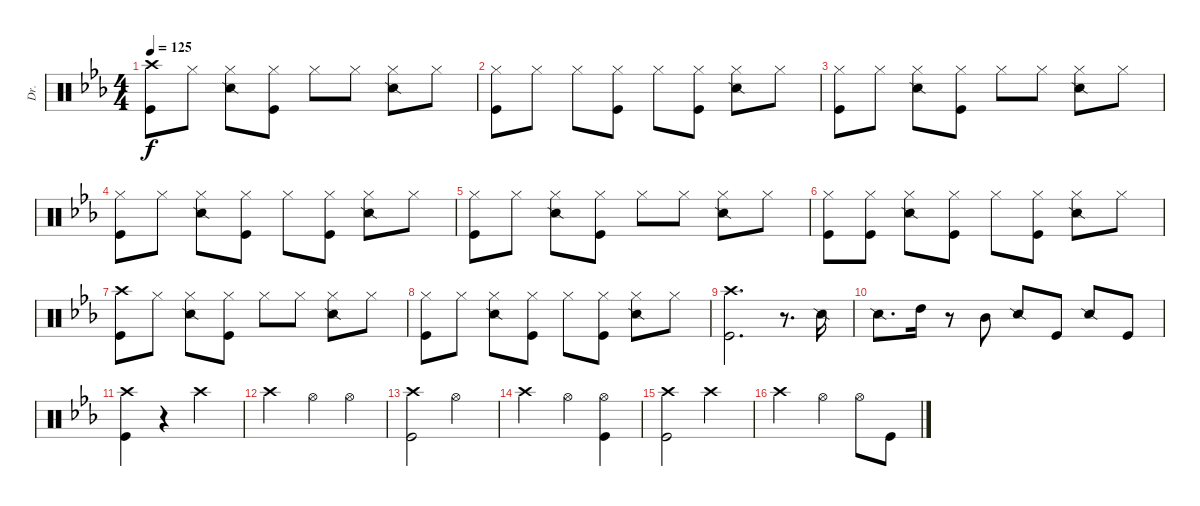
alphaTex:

\track ("Dr." "Dr.") {instrument percussion}
\staff {score}
\articulation defaults
\ts (4 4)
\tempo 125
\clef neutral
\ks eb
("Crash high (hit)" "Kick (hit)").8{dy f} "Hi-Hat (closed)".8 ("Hi-Hat (closed)" "Snare (side stick) 2").8 ("Hi-Hat (closed)" "Kick (hit)").8 "Hi-Hat (closed)".8 "Hi-Hat (closed)".8 ("Hi-Hat (closed)" "Snare (side stick) 2").8 "Hi-Hat (closed)".8 |
("Hi-Hat (closed)" "Kick (hit)").8 "Hi-Hat (closed)".8 "Hi-Hat (closed)".8 ("Hi-Hat (closed)" "Kick (hit)").8 "Hi-Hat (closed)".8 ("Hi-Hat (closed)" "Kick (hit)").8 ("Hi-Hat (closed)" "Snare (side stick) 2").8 "Hi-Hat (closed)".8 |
("Hi-Hat (closed)" "Kick (hit)").8 "Hi-Hat (closed)".8 ("Hi-Hat (closed)" "Snare (side stick) 2").8 ("Hi-Hat (closed)" "Kick (hit)").8 "Hi-Hat (closed)".8 "Hi-Hat (closed)".8 ("Hi-Hat (closed)" "Snare (side stick) 2").8 "Hi-Hat (closed)".8 |
("Hi-Hat (closed)" "Kick (hit)").8 "Hi-Hat (closed)".8 ("Hi-Hat (closed)" "Snare (side stick) 2").8 ("Hi-Hat (closed)" "Kick (hit)").8 "Hi-Hat (closed)".8 ("Hi-Hat (closed)" "Kick (hit)").8 ("Hi-Hat (closed)" "Snare (side stick) 2").8 "Hi-Hat (closed)".8 |
("Hi-Hat (closed)" "Kick (hit)").8 "Hi-Hat (closed)".8 ("Hi-Hat (closed)" "Snare (side stick) 2").8 ("Hi-Hat (closed)" "Kick (hit)").8 "Hi-Hat (closed)".8 "Hi-Hat (closed)".8 ("Hi-Hat (closed)" "Snare (side stick) 2").8 "Hi-Hat (closed)".8 |
("Hi-Hat (closed)" "Kick (hit)").8 ("Hi-Hat (closed)" "Kick (hit)").8 ("Hi-Hat (closed)" "Snare (side stick) 2").8 ("Hi-Hat (closed)" "Kick (hit)").8 "Hi-Hat (closed)".8 ("Hi-Hat (closed)" "Kick (hit)").8 ("Hi-Hat (closed)" "Snare (side stick) 2").8 "Hi-Hat (closed)".8 |
("Crash high (hit)" "Kick (hit)").8 "Hi-Hat (closed)".8 ("Hi-Hat (closed)" "Snare (side stick) 2").8 ("Hi-Hat (closed)" "Kick (hit)").8 "Hi-Hat (closed)".8 "Hi-Hat (closed)".8 ("Hi-Hat (closed)" "Snare (side stick) 2").8 "Hi-Hat (closed)".8 |
("Hi-Hat (closed)" "Kick (hit)").8 "Hi-Hat (closed)".8 ("Hi-Hat (closed)" "Snare (side stick) 2").8 ("Hi-Hat (closed)" "Kick (hit)").8 "Hi-Hat (closed)".8 ("Hi-Hat (closed)" "Kick (hit)").8 ("Hi-Hat (closed)" "Snare (side stick) 2").8 "Hi-Hat (closed)".8 |
("Crash high (hit)" "Kick (hit)").2{d} r.8{d} "Snare (side stick) 2".16 |
"Snare (side stick) 2".8{d} "High Tom (hit)".16 r.8 "Mid Tom (hit)".8 "Snare (side stick) 2".8 "Kick (hit)".8 "Snare (side stick) 2".8 "Kick (hit)".8 |
("Crash high (hit)" "Kick (hit)").4 r.4 "Crash high (hit)".2 |
"Crash high (hit)".2 "Hi-Hat (open)".4 "Hi-Hat (open)".4 |
("Crash high (hit)" "Kick (hit)").2 "Hi-Hat (open)".2 |
"Crash high (hit)".2 "Hi-Hat (open)".4 ("Hi-Hat (open)" "Kick (hit)").4 |
("Crash high (hit)" "Kick (hit)").2 "Crash high (hit)".2 |
"Crash high (hit)".2 "Hi-Hat (open)".4 "Hi-Hat (open)".8 "Kick (hit)".8
